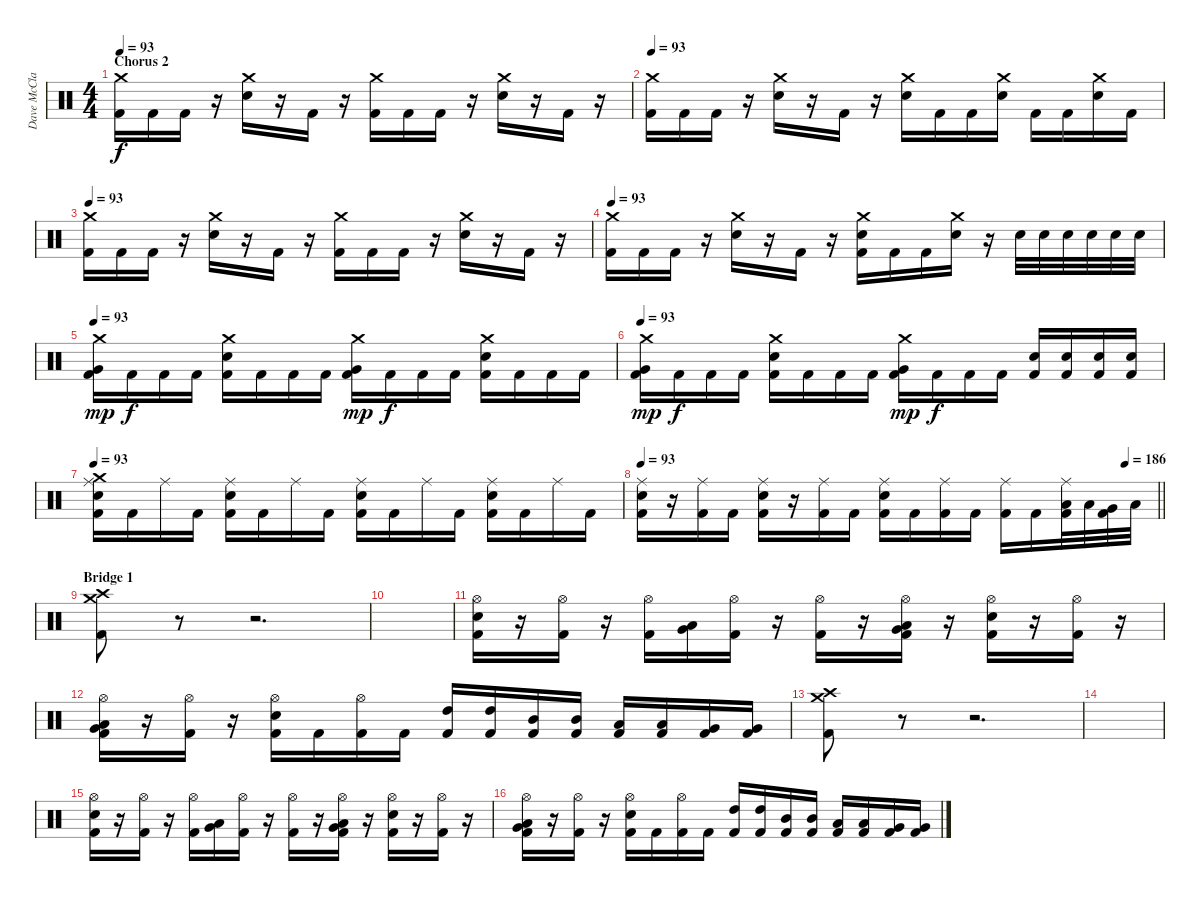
\track ("Dave McClain" "Dave McCla") {instrument percussion}
\staff {score}
\articulation defaults
\ts (4 4)
\section ("" "Chorus 2")
\tempo 93
\clef neutral
\ks c
("Crash medium (hit)" "Kick (hit) 2").16{dy f} "Kick (hit) 2".16 "Kick (hit) 2".16 r.16 ("Crash medium (hit)" "Snare (hit) 2").16 r.16 "Kick (hit) 2".16 r.16 ("Crash medium (hit)" "Kick (hit) 2").16 "Kick (hit) 2".16 "Kick (hit) 2".16 r.16 ("Crash medium (hit)" "Snare (hit) 2").16 r.16 "Kick (hit) 2".16 r.16 |
\tempo 93
("Crash medium (hit)" "Kick (hit) 2").16 "Kick (hit) 2".16 "Kick (hit) 2".16 r.16 ("Crash medium (hit)" "Snare (hit) 2").16 r.16 "Kick (hit) 2".16 r.16 ("Crash medium (hit)" "Snare (hit) 2").16 "Kick (hit) 2".16 "Kick (hit) 2".16 ("Crash medium (hit)" "Snare (hit) 2").16 "Kick (hit) 2".16 "Kick (hit) 2".16 ("Crash medium (hit)" "Snare (hit) 2").16 "Kick (hit) 2".16 |
\tempo 93
("Crash medium (hit)" "Kick (hit) 2").16 "Kick (hit) 2".16 "Kick (hit) 2".16 r.16 ("Crash medium (hit)" "Snare (hit) 2").16 r.16 "Kick (hit) 2".16 r.16 ("Crash medium (hit)" "Kick (hit) 2").16 "Kick (hit) 2".16 "Kick (hit) 2".16 r.16 ("Crash medium (hit)" "Snare (hit) 2").16 r.16 "Kick (hit) 2".16 r.16 |
\tempo 93
("Crash medium (hit)" "Kick (hit) 2").16 "Kick (hit) 2".16 "Kick (hit) 2".16 r.16 ("Crash medium (hit)" "Snare (hit) 2").16 r.16 "Kick (hit) 2".16 r.16 ("Crash medium (hit)" "Snare (hit) 2" "Kick (hit) 2").16 "Kick (hit) 2".16 "Kick (hit) 2".16 ("Crash medium (hit)" "Snare (hit) 2").16 r.16 "Snare (hit) 2".32 "Snare (hit) 2".32 "Snare (hit) 2".32 "Snare (hit) 2".32 "Snare (hit) 2".32 "Snare (hit) 2".32 |
\tempo 93
("Crash medium (hit)" "Very Low Tom (hit)" "Kick (hit) 2").16{dy mp} "Kick (hit) 2".16{dy f} "Kick (hit) 2".16 "Kick (hit) 2".16 ("Crash medium (hit)" "Snare (hit) 2" "Kick (hit) 2").16 "Kick (hit) 2".16 "Kick (hit) 2".16 "Kick (hit) 2".16 ("Crash medium (hit)" "Very Low Tom (hit)" "Kick (hit) 2").16{dy mp} "Kick (hit) 2".16{dy f} "Kick (hit) 2".16 "Kick (hit) 2".16 ("Crash medium (hit)" "Snare (hit) 2" "Kick (hit) 2").16 "Kick (hit) 2".16 "Kick (hit) 2".16 "Kick (hit) 2".16 |
\tempo 93
("Crash medium (hit)" "Very Low Tom (hit)" "Kick (hit) 2").16{dy mp} "Kick (hit) 2".16{dy f} "Kick (hit) 2".16 "Kick (hit) 2".16 ("Crash medium (hit)" "Snare (hit) 2" "Kick (hit) 2").16 "Kick (hit) 2".16 "Kick (hit) 2".16 "Kick (hit) 2".16 ("Crash medium (hit)" "Very Low Tom (hit)" "Kick (hit) 2").16{dy mp} "Kick (hit) 2".16{dy f} "Kick (hit) 2".16 "Kick (hit) 2".16 ("Snare (hit) 2" "Kick (hit) 2").16 ("Snare (hit) 2" "Kick (hit) 2").16 ("Snare (hit) 2" "Kick (hit) 2").16 ("Snare (hit) 2" "Kick (hit) 2").16 |
\tempo 93
("Crash medium (hit)" "Ride (middle)" "Snare (hit) 2" "Kick (hit) 2").16 "Kick (hit) 2".16 "Ride (middle)".16 "Kick (hit) 2".16 ("Ride (middle)" "Snare (hit) 2" "Kick (hit) 2").16 "Kick (hit) 2".16 "Ride (middle)".16 "Kick (hit) 2".16 ("Ride (middle)" "Snare (hit) 2" "Kick (hit) 2").16 "Kick (hit) 2".16 "Ride (middle)".16 "Kick (hit) 2".16 ("Ride (middle)" "Snare (hit) 2" "Kick (hit) 2").16 "Kick (hit) 2".16 "Ride (middle)".16 "Kick (hit) 2".16 |
\tempo 93
\tempo (186 0.9375)
\barLineRight lightlight
("Ride (middle)" "Snare (hit) 2" "Kick (hit) 2").16 r.16 ("Ride (middle)" "Kick (hit) 2").16 "Kick (hit) 2".16 ("Ride (middle)" "Snare (hit) 2" "Kick (hit) 2").16 r.16 ("Ride (middle)" "Kick (hit) 2").16 "Kick (hit) 2".16 ("Ride (middle)" "Snare (hit) 2" "Kick (hit) 2").16 "Kick (hit) 2".16 ("Ride (middle)" "Kick (hit) 2").16 "Kick (hit) 2".16 ("Ride (middle)" "Kick (hit) 2").16 "Kick (hit) 2".16 ("Ride (middle)" "Low Tom (hit)" "Kick (hit) 2").32 "Low Tom (hit)".32 ("Very Low Tom (hit)" "Kick (hit) 2").32 "Low Floor Tom (hit)".32 |
\section ("" "Bridge 1")
("Crash high (hit)" "Crash medium (hit)" "Kick (hit) 2").8 r.8 r.2{d} |
|
("Hi-Hat (open)" "Snare (hit) 2" "Kick (hit) 2").16 r.16 ("Hi-Hat (open)" "Kick (hit) 2").16 r.16 ("Hi-Hat (open)" "Kick (hit) 2").16 ("Low Floor Tom (hit)" "Very Low Tom (hit)").16 ("Hi-Hat (open)" "Kick (hit) 2").16 r.16 ("Hi-Hat (open)" "Kick (hit) 2").16 r.16 ("Hi-Hat (open)" "Low Floor Tom (hit)" "Very Low Tom (hit)" "Kick (hit) 2").16 r.16 ("Hi-Hat (open)" "Snare (hit) 2" "Kick (hit) 2").16 r.16 ("Hi-Hat (open)" "Kick (hit) 2").16 r.16 |
("Hi-Hat (open)" "Low Floor Tom (hit)" "Very Low Tom (hit)" "Kick (hit) 2").16 r.16 ("Hi-Hat (open)" "Kick (hit) 2").16 r.16 ("Hi-Hat (open)" "Snare (hit) 2" "Kick (hit) 2").16 "Kick (hit) 2".16 ("Hi-Hat (open)" "Kick (hit) 2").16 "Kick (hit) 2".16 ("High Tom (hit)" "Kick (hit) 2").16 ("High Tom (hit)" "Kick (hit) 2").16 ("Mid Tom (hit)" "Kick (hit) 2").16 ("Mid Tom (hit)" "Kick (hit) 2").16 ("Low Tom (hit)" "Kick (hit) 2").16 ("Low Tom (hit)" "Kick (hit) 2").16 ("Very Low Tom (hit)" "Kick (hit) 2").16 ("Very Low Tom (hit)" "Kick (hit) 2").16 |
("Crash high (hit)" "Crash medium (hit)" "Kick (hit) 2").8 r.8 r.2{d} |
|
("Hi-Hat (open)" "Snare (hit) 2" "Kick (hit) 2").16 r.16 ("Hi-Hat (open)" "Kick (hit) 2").16 r.16 ("Hi-Hat (open)" "Kick (hit) 2").16 ("Low Floor Tom (hit)" "Very Low Tom (hit)").16 ("Hi-Hat (open)" "Kick (hit) 2").16 r.16 ("Hi-Hat (open)" "Kick (hit) 2").16 r.16 ("Hi-Hat (open)" "Low Floor Tom (hit)" "Very Low Tom (hit)" "Kick (hit) 2").16 r.16 ("Hi-Hat (open)" "Snare (hit) 2" "Kick (hit) 2").16 r.16 ("Hi-Hat (open)" "Kick (hit) 2").16 r.16 |
("Hi-Hat (open)" "Low Floor Tom (hit)" "Very Low Tom (hit)" "Kick (hit) 2").16 r.16 ("Hi-Hat (open)" "Kick (hit) 2").16 r.16 ("Hi-Hat (open)" "Snare (hit) 2" "Kick (hit) 2").16 "Kick (hit) 2".16 ("Hi-Hat (open)" "Kick (hit) 2").16 "Kick (hit) 2".16 ("High Tom (hit)" "Kick (hit) 2").16 ("High Tom (hit)" "Kick (hit) 2").16 ("Mid Tom (hit)" "Kick (hit) 2").16 ("Mid Tom (hit)" "Kick (hit) 2").16 ("Low Tom (hit)" "Kick (hit) 2").16 ("Low Tom (hit)" "Kick (hit) 2").16 ("Very Low Tom (hit)" "Kick (hit) 2").16 ("Very Low Tom (hit)" "Kick (hit) 2").16
